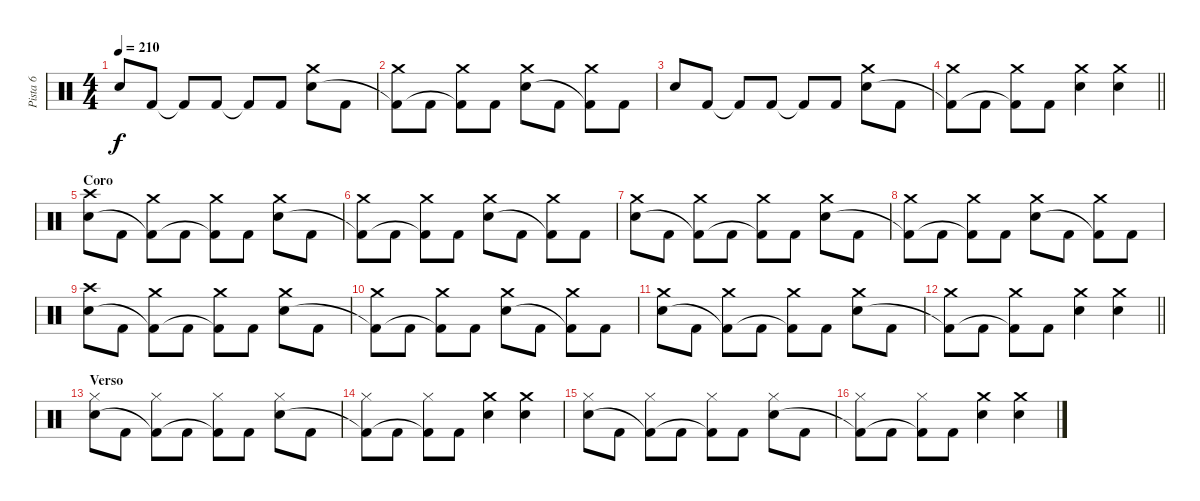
\track ("Pista 6" "Pista 6") {instrument percussion}
\staff {score}
\articulation defaults
\ts (4 4)
\tempo 210
\clef neutral
\ks c "Electric Snare (hit)".8{dy f} "Kick (hit) 2".8 "Kick (hit) 2"{t}.8 "Kick (hit) 2".8 "Kick (hit) 2"{t}.8 "Kick (hit) 2".8
("Crash medium (hit)" "Electric Snare (hit)").8 "Kick (hit) 2".8 |
("Crash medium (hit)" "Kick (hit) 2"{t}).8 "Kick (hit) 2".8 ("Crash medium (hit)" "Kick (hit) 2"{t}).8 "Kick (hit) 2".8 ("Crash medium (hit)" "Electric Snare (hit)").8 "Kick (hit) 2".8 ("Crash medium (hit)" "Kick (hit) 2"{t}).8 "Kick (hit) 2".8 |
"Electric Snare (hit)".8 "Kick (hit) 2".8 "Kick (hit) 2"{t}.8 "Kick (hit) 2".8 "Kick (hit) 2"{t}.8 "Kick (hit) 2".8 ("Crash medium (hit)" "Electric Snare (hit)").8 "Kick (hit) 2".8 |
\barLineRight lightlight
("Crash medium (hit)" "Kick (hit) 2"{t}).8 "Kick (hit) 2".8 ("Crash medium (hit)" "Kick (hit) 2"{t}).8 "Kick (hit) 2".8 ("Crash medium (hit)" "Electric Snare (hit)").4 ("Crash medium (hit)" "Electric Snare (hit)").4 |
\section ("" "Coro")
("Crash high (hit)" "Electric Snare (hit)").8 "Kick (hit) 2".8 ("Crash medium (hit)" "Kick (hit) 2"{t}).8 "Kick (hit) 2".8 ("Crash medium (hit)" "Kick (hit) 2"{t}).8 "Kick (hit) 2".8 ("Crash medium (hit)" "Electric Snare (hit)").8 "Kick (hit) 2".8 |
("Crash medium (hit)" "Kick (hit) 2"{t}).8 "Kick (hit) 2".8 ("Crash medium (hit)" "Kick (hit) 2"{t}).8 "Kick (hit) 2".8 ("Crash medium (hit)" "Electric Snare (hit)").8 "Kick (hit) 2".8 ("Crash medium (hit)" "Kick (hit) 2"{t}).8 "Kick (hit) 2".8 |
("Crash medium (hit)" "Electric Snare (hit)").8 "Kick (hit) 2".8 ("Crash medium (hit)" "Kick (hit) 2"{t}).8 "Kick (hit) 2".8 ("Crash medium (hit)" "Kick (hit) 2"{t}).8 "Kick (hit) 2".8 ("Crash medium (hit)" "Electric Snare (hit)").8 "Kick (hit) 2".8 |
("Crash medium (hit)" "Kick (hit) 2"{t}).8 "Kick (hit) 2".8 ("Crash medium (hit)" "Kick (hit) 2"{t}).8 "Kick (hit) 2".8 ("Crash medium (hit)" "Electric Snare (hit)").8 "Kick (hit) 2".8 ("Crash medium (hit)" "Kick (hit) 2"{t}).8 "Kick (hit) 2".8 |
("Crash high (hit)" "Electric Snare (hit)").8 "Kick (hit) 2".8 ("Crash medium (hit)" "Kick (hit) 2"{t}).8 "Kick (hit) 2".8 ("Crash medium (hit)" "Kick (hit) 2"{t}).8 "Kick (hit) 2".8 ("Crash medium (hit)" "Electric Snare (hit)").8 "Kick (hit) 2".8 |
("Crash medium (hit)" "Kick (hit) 2"{t}).8 "Kick (hit) 2".8 ("Crash medium (hit)" "Kick (hit) 2"{t}).8 "Kick (hit) 2".8 ("Crash medium (hit)" "Electric Snare (hit)").8 "Kick (hit) 2".8 ("Crash medium (hit)" "Kick (hit) 2"{t}).8 "Kick (hit) 2".8 |
("Crash medium (hit)" "Electric Snare (hit)").8 "Kick (hit) 2".8 ("Crash medium (hit)" "Kick (hit) 2"{t}).8 "Kick (hit) 2".8 ("Crash medium (hit)" "Kick (hit) 2"{t}).8 "Kick (hit) 2".8 ("Crash medium (hit)" "Electric Snare (hit)").8 "Kick (hit) 2".8 |
\barLineRight lightlight
("Crash medium (hit)" "Kick (hit) 2"{t}).8 "Kick (hit) 2".8 ("Crash medium (hit)" "Kick (hit) 2"{t}).8 "Kick (hit) 2".8 ("Crash medium (hit)" "Electric Snare (hit)").4 ("Crash medium (hit)" "Electric Snare (hit)").4 |
\section ("" "Verso")
("Hi-Hat (closed)" "Electric Snare (hit)").8 "Kick (hit) 2".8 ("Hi-Hat (closed)" "Kick (hit) 2"{t}).8 "Kick (hit) 2".8 ("Hi-Hat (closed)" "Kick (hit) 2"{t}).8 "Kick (hit) 2".8 ("Hi-Hat (closed)" "Electric Snare (hit)").8 "Kick (hit) 2".8 |
("Hi-Hat (closed)" "Kick (hit) 2"{t}).8 "Kick (hit) 2".8 ("Hi-Hat (closed)" "Kick (hit) 2"{t}).8 "Kick (hit) 2".8 ("Crash medium (hit)" "Electric Snare (hit)").4 ("Crash medium (hit)" "Electric Snare (hit)").4 |
("Hi-Hat (closed)" "Electric Snare (hit)").8 "Kick (hit) 2".8 ("Hi-Hat (closed)" "Kick (hit) 2"{t}).8 "Kick (hit) 2".8 ("Hi-Hat (closed)" "Kick (hit) 2"{t}).8 "Kick (hit) 2".8 ("Hi-Hat (closed)" "Electric Snare (hit)").8 "Kick (hit) 2".8 |
("Hi-Hat (closed)" "Kick (hit) 2"{t}).8 "Kick (hit) 2".8 ("Hi-Hat (closed)" "Kick (hit) 2"{t}).8 "Kick (hit) 2".8 ("Crash medium (hit)" "Electric Snare (hit)").4 ("Crash medium (hit)" "Electric Snare (hit)").4
